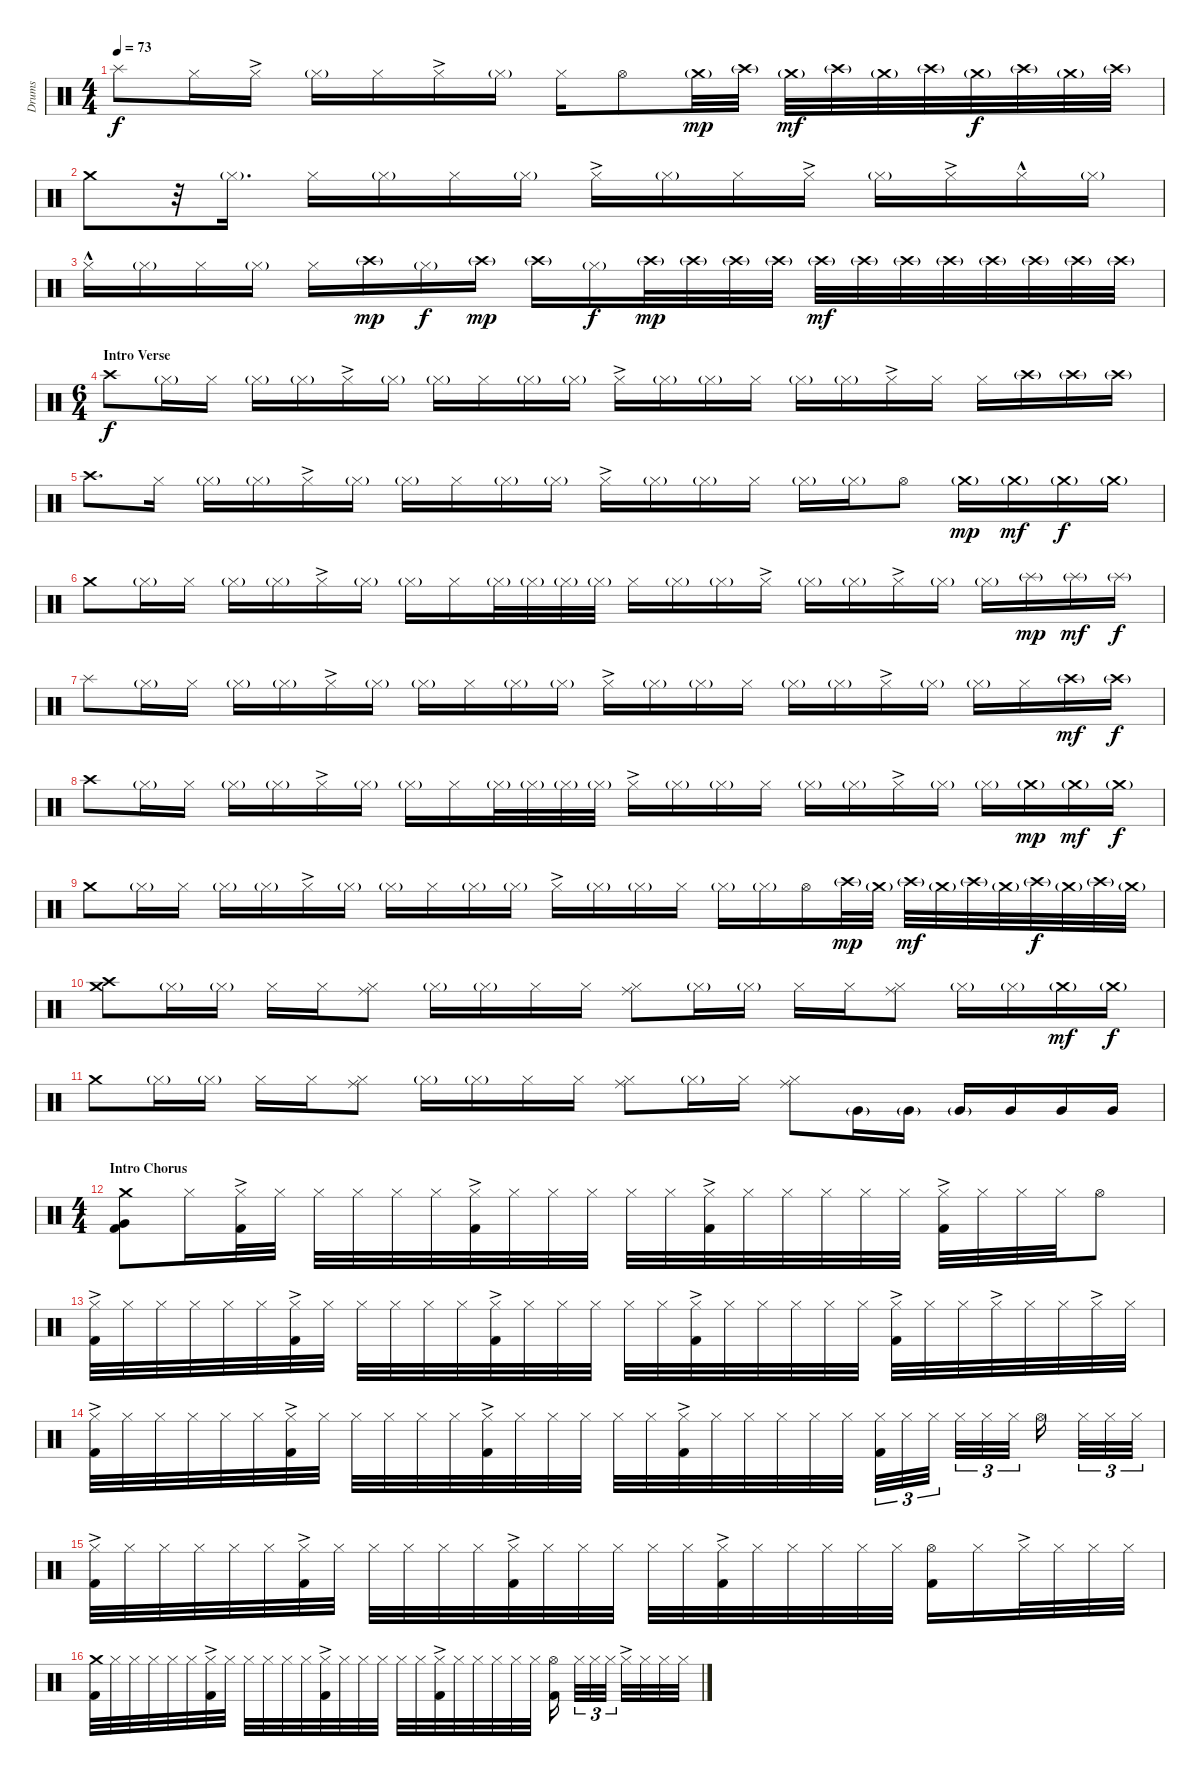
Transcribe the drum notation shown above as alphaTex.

\track ("Drums" "Drums") {instrument percussion}
\staff {score}
\articulation defaults
\ts (4 4)
\tempo 73
\clef neutral
\ks c "Splash (hit)".8{dy f} "Hi-Hat (closed)".16 "Hi-Hat (closed)"{ac}.16 "Hi-Hat (closed)"{g}.16 "Hi-Hat (closed)".16 "Hi-Hat (closed)"{ac}.16 "Hi-Hat (closed)"{g}.16 "Hi-Hat (closed)".16 "Hi-Hat (open)".8 "Crash medium (hit)"{g}.32{dy mp} "Crash high (hit)"{g}.32 "Crash medium (hit)"{g}.32{dy mf} "Crash high (hit)"{g}.32 "Crash medium (hit)"{g}.32 "Crash high (hit)"{g}.32 "Crash medium (hit)"{g}.32{dy f} "Crash high (hit)"{g}.32 "Crash medium (hit)"{g}.32 "Crash high (hit)"{g}.32
|
"Crash medium (hit)".8 r.32 "Hi-Hat (closed)"{g}.16{d} "Hi-Hat (closed)".16 "Hi-Hat (closed)"{g}.16 "Hi-Hat (closed)".16 "Hi-Hat (closed)"{g}.16 "Hi-Hat (closed)"{ac}.16 "Hi-Hat (closed)"{g}.16 "Hi-Hat (closed)".16 "Hi-Hat (closed)"{ac}.16 "Hi-Hat (closed)"{g}.16 "Hi-Hat (closed)"{ac}.16 "Hi-Hat (closed)"{hac}.16 "Hi-Hat (closed)"{g}.16 |
"Hi-Hat (closed)"{hac}.16 "Hi-Hat (closed)"{g}.16 "Hi-Hat (closed)".16 "Hi-Hat (closed)"{g}.16 "Hi-Hat (closed)".16 "Crash high (hit)"{g}.16{dy mp} "Hi-Hat (closed)"{g}.16{dy f} "Crash high (hit)"{g}.16{dy mp} "Crash high (hit)"{g}.16 "Hi-Hat (closed)"{g}.16{dy f} "Crash high (hit)"{g}.32{dy mp} "Crash high (hit)"{g}.32 "Crash high (hit)"{g}.32 "Crash high (hit)"{g}.32 "Crash high (hit)"{g}.32{dy mf} "Crash high (hit)"{g}.32 "Crash high (hit)"{g}.32 "Crash high (hit)"{g}.32 "Crash high (hit)"{g}.32 "Crash high (hit)"{g}.32 "Crash high (hit)"{g}.32 "Crash high (hit)"{g}.32 |
\ts (6 4)
\section ("" "Intro Verse")
"Crash high (hit)".8{dy f} "Hi-Hat (closed)"{g}.16 "Hi-Hat (closed)".16 "Hi-Hat (closed)"{g}.16 "Hi-Hat (closed)"{g}.16 "Hi-Hat (closed)"{ac}.16 "Hi-Hat (closed)"{g}.16 "Hi-Hat (closed)"{g}.16 "Hi-Hat (closed)".16 "Hi-Hat (closed)"{g}.16 "Hi-Hat (closed)"{g}.16 "Hi-Hat (closed)"{ac}.16 "Hi-Hat (closed)"{g}.16 "Hi-Hat (closed)"{g}.16 "Hi-Hat (closed)".16 "Hi-Hat (closed)"{g}.16 "Hi-Hat (closed)"{g}.16 "Hi-Hat (closed)"{ac}.16 "Hi-Hat (closed)".16 "Hi-Hat (closed)".16 "Crash high (hit)"{g}.16 "Crash high (hit)"{g}.16 "Crash high (hit)"{g}.16 |
"Crash high (hit)".8{d} "Hi-Hat (closed)".16 "Hi-Hat (closed)"{g}.16 "Hi-Hat (closed)"{g}.16 "Hi-Hat (closed)"{ac}.16 "Hi-Hat (closed)"{g}.16 "Hi-Hat (closed)"{g}.16 "Hi-Hat (closed)".16 "Hi-Hat (closed)"{g}.16 "Hi-Hat (closed)"{g}.16 "Hi-Hat (closed)"{ac}.16 "Hi-Hat (closed)"{g}.16 "Hi-Hat (closed)"{g}.16 "Hi-Hat (closed)".16 "Hi-Hat (closed)"{g}.16 "Hi-Hat (closed)"{g}.16 "Hi-Hat (open)".8 "Crash medium (hit)"{g}.16{dy mp} "Crash medium (hit)"{g}.16{dy mf} "Crash medium (hit)"{g}.16{dy f} "Crash medium (hit)"{g}.16 |
"Crash medium (hit)".8 "Hi-Hat (closed)"{g}.16 "Hi-Hat (closed)".16 "Hi-Hat (closed)"{g}.16 "Hi-Hat (closed)"{g}.16 "Hi-Hat (closed)"{ac}.16 "Hi-Hat (closed)"{g}.16 "Hi-Hat (closed)"{g}.16 "Hi-Hat (closed)".16 "Hi-Hat (closed)"{g}.32 "Hi-Hat (closed)"{g}.32 "Hi-Hat (closed)"{g}.32 "Hi-Hat (closed)"{g}.32 "Hi-Hat (closed)".16 "Hi-Hat (closed)"{g}.16 "Hi-Hat (closed)"{g}.16 "Hi-Hat (closed)"{ac}.16 "Hi-Hat (closed)"{g}.16 "Hi-Hat (closed)"{g}.16 "Hi-Hat (closed)"{ac}.16 "Hi-Hat (closed)"{g}.16 "Hi-Hat (closed)"{g}.16 "Splash (hit)"{g}.16{dy mp} "Splash (hit)"{g}.16{dy mf} "Splash (hit)"{g}.16{dy f} |
"Splash (hit)".8 "Hi-Hat (closed)"{g}.16 "Hi-Hat (closed)".16 "Hi-Hat (closed)"{g}.16 "Hi-Hat (closed)"{g}.16 "Hi-Hat (closed)"{ac}.16 "Hi-Hat (closed)"{g}.16 "Hi-Hat (closed)"{g}.16 "Hi-Hat (closed)".16 "Hi-Hat (closed)"{g}.16 "Hi-Hat (closed)"{g}.16 "Hi-Hat (closed)"{ac}.16 "Hi-Hat (closed)"{g}.16 "Hi-Hat (closed)"{g}.16 "Hi-Hat (closed)".16 "Hi-Hat (closed)"{g}.16 "Hi-Hat (closed)"{g}.16 "Hi-Hat (closed)"{ac}.16 "Hi-Hat (closed)"{g}.16 "Hi-Hat (closed)"{g}.16 "Hi-Hat (closed)".16 "Crash high (hit)"{g}.16{dy mf} "Crash high (hit)"{g}.16{dy f} |
"Crash high (hit)".8 "Hi-Hat (closed)"{g}.16 "Hi-Hat (closed)".16 "Hi-Hat (closed)"{g}.16 "Hi-Hat (closed)"{g}.16 "Hi-Hat (closed)"{ac}.16 "Hi-Hat (closed)"{g}.16 "Hi-Hat (closed)"{g}.16 "Hi-Hat (closed)".16 "Hi-Hat (closed)"{g}.32 "Hi-Hat (closed)"{g}.32 "Hi-Hat (closed)"{g}.32 "Hi-Hat (closed)"{g}.32 "Hi-Hat (closed)"{ac}.16 "Hi-Hat (closed)"{g}.16 "Hi-Hat (closed)"{g}.16 "Hi-Hat (closed)".16 "Hi-Hat (closed)"{g}.16 "Hi-Hat (closed)"{g}.16 "Hi-Hat (closed)"{ac}.16 "Hi-Hat (closed)"{g}.16 "Hi-Hat (closed)"{g}.16 "Crash medium (hit)"{g}.16{dy mp} "Crash medium (hit)"{g}.16{dy mf} "Crash medium (hit)"{g}.16{dy f} |
"Crash medium (hit)".8 "Hi-Hat (closed)"{g}.16 "Hi-Hat (closed)".16 "Hi-Hat (closed)"{g}.16 "Hi-Hat (closed)"{g}.16 "Hi-Hat (closed)"{ac}.16 "Hi-Hat (closed)"{g}.16 "Hi-Hat (closed)"{g}.16 "Hi-Hat (closed)".16 "Hi-Hat (closed)"{g}.16 "Hi-Hat (closed)"{g}.16 "Hi-Hat (closed)"{ac}.16 "Hi-Hat (closed)"{g}.16 "Hi-Hat (closed)"{g}.16 "Hi-Hat (closed)".16 "Hi-Hat (closed)"{g}.16 "Hi-Hat (closed)"{g}.16 "Hi-Hat (open)".16 "Crash high (hit)"{g}.32{dy mp} "Crash medium (hit)"{g}.32 "Crash high (hit)"{g}.32{dy mf} "Crash medium (hit)"{g}.32 "Crash high (hit)"{g}.32 "Crash medium (hit)"{g}.32 "Crash high (hit)"{g}.32{dy f} "Crash medium (hit)"{g}.32 "Crash high (hit)"{g}.32 "Crash medium (hit)"{g}.32 |
("Crash high (hit)" "Crash medium (hit)").8 "Hi-Hat (closed)"{g}.16 "Hi-Hat (closed)"{g}.16 "Hi-Hat (closed)".16 "Hi-Hat (closed)".16 ("Ride (middle)" "Hi-Hat (closed)").8 "Hi-Hat (closed)"{g}.16 "Hi-Hat (closed)"{g}.16 "Hi-Hat (closed)".16 "Hi-Hat (closed)".16 ("Ride (middle)" "Hi-Hat (closed)").8 "Hi-Hat (closed)"{g}.16 "Hi-Hat (closed)"{g}.16 "Hi-Hat (closed)".16 "Hi-Hat (closed)".16 ("Ride (middle)" "Hi-Hat (closed)").8 "Hi-Hat (closed)"{g}.16 "Hi-Hat (closed)"{g}.16 "Crash medium (hit)"{g}.16{dy mf} "Crash medium (hit)"{g}.16{dy f} |
"Crash medium (hit)".8 "Hi-Hat (closed)"{g}.16 "Hi-Hat (closed)"{g}.16 "Hi-Hat (closed)".16 "Hi-Hat (closed)".16 ("Ride (middle)" "Hi-Hat (closed)").8 "Hi-Hat (closed)"{g}.16 "Hi-Hat (closed)"{g}.16 "Hi-Hat (closed)".16 "Hi-Hat (closed)".16 ("Ride (middle)" "Hi-Hat (closed)").8 "Hi-Hat (closed)"{g}.16 "Hi-Hat (closed)".16 ("Ride (middle)" "Hi-Hat (closed)").8 "Very Low Tom (hit)"{g}.16 "Very Low Tom (hit)"{g}.16 "Very Low Tom (hit)"{g}.16 "Very Low Tom (hit)".16 "Very Low Tom (hit)".16 "Very Low Tom (hit)".16 |
\ts (4 4)
\section ("" "Intro Chorus")
("Crash medium (hit)" "Very Low Tom (hit)" "Kick (hit) 2").8 "Hi-Hat (closed)".16 ("Hi-Hat (closed)"{ac} "Kick (hit) 2").32 "Hi-Hat (closed)".32 "Hi-Hat (closed)".32 "Hi-Hat (closed)".32 "Hi-Hat (closed)".32 "Hi-Hat (closed)".32 ("Hi-Hat (closed)"{ac} "Kick (hit) 2").32 "Hi-Hat (closed)".32 "Hi-Hat (closed)".32 "Hi-Hat (closed)".32 "Hi-Hat (closed)".32 "Hi-Hat (closed)".32 ("Hi-Hat (closed)"{ac} "Kick (hit) 2").32 "Hi-Hat (closed)".32 "Hi-Hat (closed)".32 "Hi-Hat (closed)".32 "Hi-Hat (closed)".32 "Hi-Hat (closed)".32 ("Hi-Hat (closed)"{ac} "Kick (hit) 2").32 "Hi-Hat (closed)".32 "Hi-Hat (closed)".32 "Hi-Hat (closed)".32 "Hi-Hat (open)".8 |
("Hi-Hat (closed)"{ac} "Kick (hit) 2").32 "Hi-Hat (closed)".32 "Hi-Hat (closed)".32 "Hi-Hat (closed)".32 "Hi-Hat (closed)".32 "Hi-Hat (closed)".32 ("Hi-Hat (closed)"{ac} "Kick (hit) 2").32 "Hi-Hat (closed)".32 "Hi-Hat (closed)".32 "Hi-Hat (closed)".32 "Hi-Hat (closed)".32 "Hi-Hat (closed)".32 ("Hi-Hat (closed)"{ac} "Kick (hit) 2").32 "Hi-Hat (closed)".32 "Hi-Hat (closed)".32 "Hi-Hat (closed)".32 "Hi-Hat (closed)".32 "Hi-Hat (closed)".32 ("Hi-Hat (closed)"{ac} "Kick (hit) 2").32 "Hi-Hat (closed)".32 "Hi-Hat (closed)".32 "Hi-Hat (closed)".32 "Hi-Hat (closed)".32 "Hi-Hat (closed)".32 ("Hi-Hat (closed)"{ac} "Kick (hit) 2").32 "Hi-Hat (closed)".32 "Hi-Hat (closed)".32 "Hi-Hat (closed)"{ac}.32 "Hi-Hat (closed)".32 "Hi-Hat (closed)".32 "Hi-Hat (closed)"{ac}.32 "Hi-Hat (closed)".32 |
("Hi-Hat (closed)"{ac} "Kick (hit) 2").32 "Hi-Hat (closed)".32 "Hi-Hat (closed)".32 "Hi-Hat (closed)".32 "Hi-Hat (closed)".32 "Hi-Hat (closed)".32 ("Hi-Hat (closed)"{ac} "Kick (hit) 2").32 "Hi-Hat (closed)".32 "Hi-Hat (closed)".32 "Hi-Hat (closed)".32 "Hi-Hat (closed)".32 "Hi-Hat (closed)".32 ("Hi-Hat (closed)"{ac} "Kick (hit) 2").32 "Hi-Hat (closed)".32 "Hi-Hat (closed)".32 "Hi-Hat (closed)".32 "Hi-Hat (closed)".32 "Hi-Hat (closed)".32 ("Hi-Hat (closed)"{ac} "Kick (hit) 2").32 "Hi-Hat (closed)".32 "Hi-Hat (closed)".32 "Hi-Hat (closed)".32 "Hi-Hat (closed)".32 "Hi-Hat (closed)".32 ("Hi-Hat (closed)" "Kick (hit) 2").32{tu (3 2)} "Hi-Hat (closed)".32{tu (3 2)} "Hi-Hat (closed)".32{tu (3 2)} "Hi-Hat (closed)".32{tu (3 2)} "Hi-Hat (closed)".32{tu (3 2)} "Hi-Hat (closed)".32{tu (3 2)} "Hi-Hat (open)".16 "Hi-Hat (closed)".32{tu (3 2)} "Hi-Hat (closed)".32{tu (3 2)} "Hi-Hat (closed)".32{tu (3 2)} |
("Hi-Hat (closed)"{ac} "Kick (hit) 2").32 "Hi-Hat (closed)".32 "Hi-Hat (closed)".32 "Hi-Hat (closed)".32 "Hi-Hat (closed)".32 "Hi-Hat (closed)".32 ("Hi-Hat (closed)"{ac} "Kick (hit) 2").32 "Hi-Hat (closed)".32 "Hi-Hat (closed)".32 "Hi-Hat (closed)".32 "Hi-Hat (closed)".32 "Hi-Hat (closed)".32 ("Hi-Hat (closed)"{ac} "Kick (hit) 2").32 "Hi-Hat (closed)".32 "Hi-Hat (closed)".32 "Hi-Hat (closed)".32 "Hi-Hat (closed)".32 "Hi-Hat (closed)".32 ("Hi-Hat (closed)"{ac} "Kick (hit) 2").32 "Hi-Hat (closed)".32 "Hi-Hat (closed)".32 "Hi-Hat (closed)".32 "Hi-Hat (closed)".32 "Hi-Hat (closed)".32 ("Hi-Hat (open)" "Kick (hit) 2").16 "Hi-Hat (closed)".16 "Hi-Hat (closed)"{ac}.32 "Hi-Hat (closed)".32 "Hi-Hat (closed)".32 "Hi-Hat (closed)".32 |
("Crash medium (hit)" "Kick (hit) 2").32 "Hi-Hat (closed)".32 "Hi-Hat (closed)".32 "Hi-Hat (closed)".32 "Hi-Hat (closed)".32 "Hi-Hat (closed)".32 ("Hi-Hat (closed)"{ac} "Kick (hit) 2").32 "Hi-Hat (closed)".32 "Hi-Hat (closed)".32 "Hi-Hat (closed)".32 "Hi-Hat (closed)".32 "Hi-Hat (closed)".32 ("Hi-Hat (closed)"{ac} "Kick (hit) 2").32 "Hi-Hat (closed)".32 "Hi-Hat (closed)".32 "Hi-Hat (closed)".32 "Hi-Hat (closed)".32 "Hi-Hat (closed)".32 ("Hi-Hat (closed)"{ac} "Kick (hit) 2").32 "Hi-Hat (closed)".32 "Hi-Hat (closed)".32 "Hi-Hat (closed)".32 "Hi-Hat (closed)".32 "Hi-Hat (closed)".32 ("Hi-Hat (open)" "Kick (hit) 2").16 "Hi-Hat (closed)".32{tu (3 2)} "Hi-Hat (closed)".32{tu (3 2)} "Hi-Hat (closed)".32{tu (3 2)} "Hi-Hat (closed)"{ac}.32 "Hi-Hat (closed)".32 "Hi-Hat (closed)".32 "Hi-Hat (closed)".32
